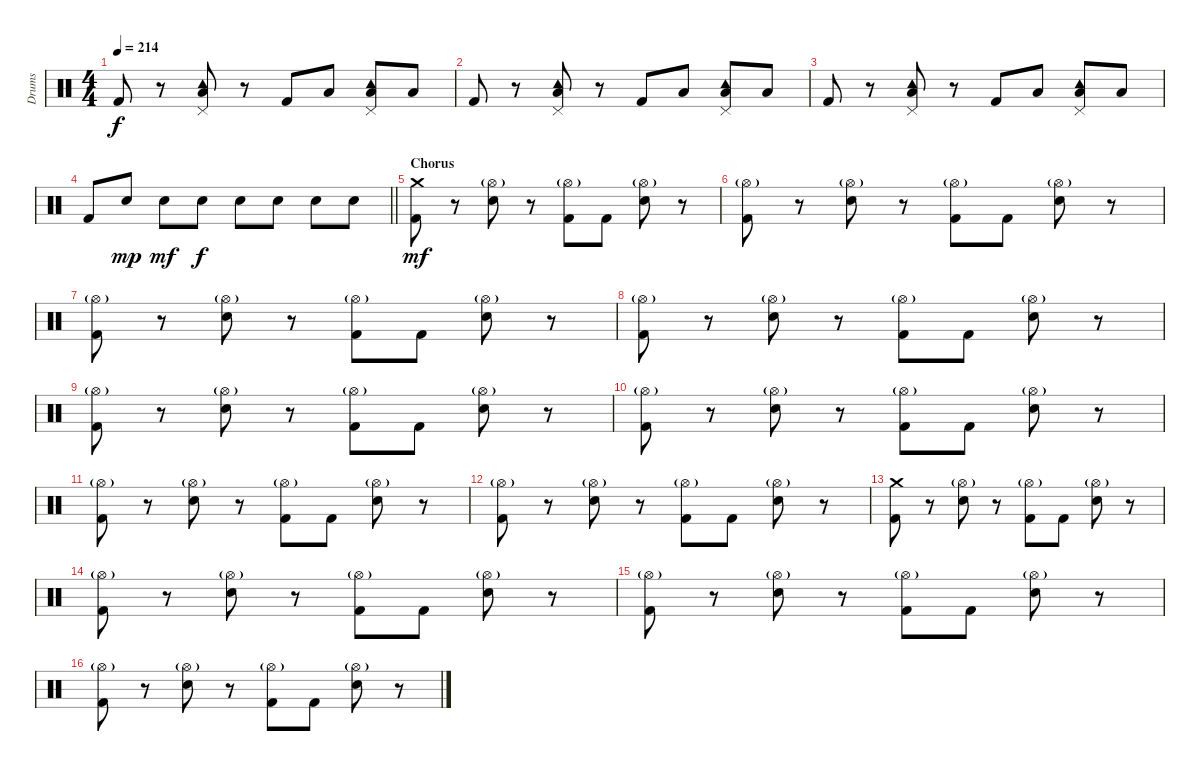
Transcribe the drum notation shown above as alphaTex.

\track ("Drums" "Drums") {instrument percussion}
\staff {score}
\articulation defaults
\ts (4 4)
\tempo 214
\clef neutral
\ks c "Kick (hit) 2".8{dy f}
r.8 ("Pedal Hi-Hat (hit)" "Tambourine (hit)" "Low Tom (hit)").8 r.8 "Kick (hit) 2".8 "Low Tom (hit)".8 ("Pedal Hi-Hat (hit)" "Tambourine (hit)" "Low Tom (hit)").8 "Low Tom (hit)".8 |
"Kick (hit) 2".8 r.8 ("Pedal Hi-Hat (hit)" "Tambourine (hit)" "Low Tom (hit)").8 r.8 "Kick (hit) 2".8 "Low Tom (hit)".8 ("Pedal Hi-Hat (hit)" "Tambourine (hit)" "Low Tom (hit)").8 "Low Tom (hit)".8 |
"Kick (hit) 2".8 r.8 ("Pedal Hi-Hat (hit)" "Tambourine (hit)" "Low Tom (hit)").8 r.8 "Kick (hit) 2".8 "Low Tom (hit)".8 ("Pedal Hi-Hat (hit)" "Tambourine (hit)" "Low Tom (hit)").8 "Low Tom (hit)".8 |
\barLineRight lightlight "Kick (hit) 2".8 "Snare (hit) 2".8{dy mp} "Snare (hit) 2".8{dy mf} "Snare (hit) 2".8{dy f} "Snare (hit) 2".8 "Snare (hit) 2".8 "Snare (hit) 2".8 "Snare (hit) 2".8
|
\section ("" "Chorus")
("Crash medium (hit)" "Kick (hit) 2").8{dy mf} r.8 ("Hi-Hat (open)"{g} "Snare (hit) 2").8 r.8 ("Hi-Hat (open)"{g} "Kick (hit) 2").8 "Kick (hit) 2".8 ("Hi-Hat (open)"{g} "Snare (hit) 2").8 r.8 |
("Hi-Hat (open)"{g} "Kick (hit) 2").8 r.8 ("Hi-Hat (open)"{g} "Snare (hit) 2").8 r.8 ("Hi-Hat (open)"{g} "Kick (hit) 2").8 "Kick (hit) 2".8 ("Hi-Hat (open)"{g} "Snare (hit) 2").8 r.8 |
("Hi-Hat (open)"{g} "Kick (hit) 2").8 r.8 ("Hi-Hat (open)"{g} "Snare (hit) 2").8 r.8 ("Hi-Hat (open)"{g} "Kick (hit) 2").8 "Kick (hit) 2".8 ("Hi-Hat (open)"{g} "Snare (hit) 2").8 r.8 |
("Hi-Hat (open)"{g} "Kick (hit) 2").8 r.8 ("Hi-Hat (open)"{g} "Snare (hit) 2").8 r.8 ("Hi-Hat (open)"{g} "Kick (hit) 2").8 "Kick (hit) 2".8 ("Hi-Hat (open)"{g} "Snare (hit) 2").8 r.8 |
("Hi-Hat (open)"{g} "Kick (hit) 2").8 r.8 ("Hi-Hat (open)"{g} "Snare (hit) 2").8 r.8 ("Hi-Hat (open)"{g} "Kick (hit) 2").8 "Kick (hit) 2".8 ("Hi-Hat (open)"{g} "Snare (hit) 2").8 r.8 |
("Hi-Hat (open)"{g} "Kick (hit) 2").8 r.8 ("Hi-Hat (open)"{g} "Snare (hit) 2").8 r.8 ("Hi-Hat (open)"{g} "Kick (hit) 2").8 "Kick (hit) 2".8 ("Hi-Hat (open)"{g} "Snare (hit) 2").8 r.8 |
("Hi-Hat (open)"{g} "Kick (hit) 2").8 r.8 ("Hi-Hat (open)"{g} "Snare (hit) 2").8 r.8 ("Hi-Hat (open)"{g} "Kick (hit) 2").8 "Kick (hit) 2".8 ("Hi-Hat (open)"{g} "Snare (hit) 2").8 r.8 |
("Hi-Hat (open)"{g} "Kick (hit) 2").8 r.8 ("Hi-Hat (open)"{g} "Snare (hit) 2").8 r.8 ("Hi-Hat (open)"{g} "Kick (hit) 2").8 "Kick (hit) 2".8 ("Hi-Hat (open)"{g} "Snare (hit) 2").8 r.8 |
("Crash medium (hit)" "Kick (hit) 2").8 r.8 ("Hi-Hat (open)"{g} "Snare (hit) 2").8 r.8 ("Hi-Hat (open)"{g} "Kick (hit) 2").8 "Kick (hit) 2".8 ("Hi-Hat (open)"{g} "Snare (hit) 2").8 r.8 |
("Hi-Hat (open)"{g} "Kick (hit) 2").8 r.8 ("Hi-Hat (open)"{g} "Snare (hit) 2").8 r.8 ("Hi-Hat (open)"{g} "Kick (hit) 2").8 "Kick (hit) 2".8 ("Hi-Hat (open)"{g} "Snare (hit) 2").8 r.8 |
("Hi-Hat (open)"{g} "Kick (hit) 2").8 r.8 ("Hi-Hat (open)"{g} "Snare (hit) 2").8 r.8 ("Hi-Hat (open)"{g} "Kick (hit) 2").8 "Kick (hit) 2".8 ("Hi-Hat (open)"{g} "Snare (hit) 2").8 r.8 |
("Hi-Hat (open)"{g} "Kick (hit) 2").8 r.8 ("Hi-Hat (open)"{g} "Snare (hit) 2").8 r.8 ("Hi-Hat (open)"{g} "Kick (hit) 2").8 "Kick (hit) 2".8 ("Hi-Hat (open)"{g} "Snare (hit) 2").8 r.8
